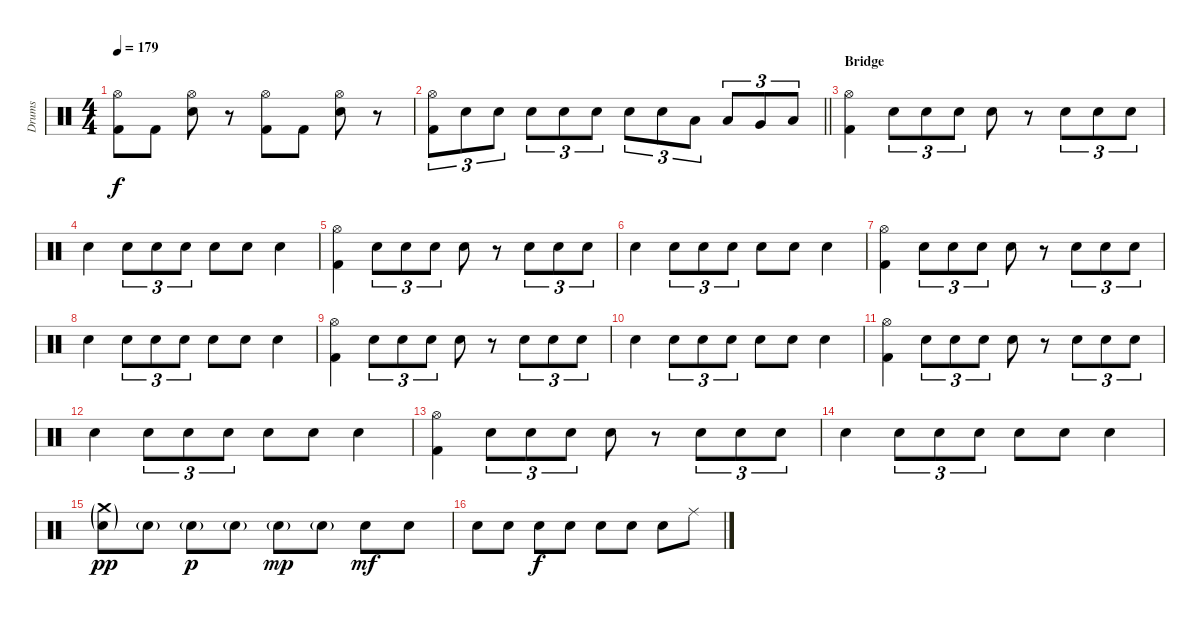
\track ("Drums" "Drums") {instrument percussion}
\staff {score}
\articulation defaults
\ts (4 4)
\tempo 179
\clef neutral
\ks c
("Hi-Hat (open)" "Kick (hit) 2").8{dy f} "Kick (hit) 2".8 ("Hi-Hat (open)" "Snare (hit) 2").8 r.8 ("Hi-Hat (open)" "Kick (hit) 2").8 "Kick (hit) 2".8 ("Hi-Hat (open)" "Snare (hit) 2").8 r.8 |
\barLineRight lightlight
("Hi-Hat (open)" "Kick (hit) 2").8{tu (3 2)} "Snare (hit) 2".8{tu (3 2)} "Snare (hit) 2".8{tu (3 2)} "Snare (hit) 2".8{tu (3 2)} "Snare (hit) 2".8{tu (3 2)} "Snare (hit) 2".8{tu (3 2)} "Snare (hit) 2".8{tu (3 2)} "Snare (hit) 2".8{tu (3 2)} "Low Tom (hit)".8{tu (3 2)} "Low Tom (hit)".8{tu (3 2)} "Very Low Tom (hit)".8{tu (3 2)} "Low Floor Tom (hit)".8{tu (3 2)} |
\section ("" "Bridge")
("Hi-Hat (open)" "Kick (hit) 2").4 "Snare (hit) 2".8{tu (3 2)} "Snare (hit) 2".8{tu (3 2)} "Snare (hit) 2".8{tu (3 2)} "Snare (hit) 2".8 r.8 "Snare (hit) 2".8{tu (3 2)} "Snare (hit) 2".8{tu (3 2)} "Snare (hit) 2".8{tu (3 2)} |
"Snare (hit) 2".4 "Snare (hit) 2".8{tu (3 2)} "Snare (hit) 2".8{tu (3 2)} "Snare (hit) 2".8{tu (3 2)} "Snare (hit) 2".8 "Snare (hit) 2".8 "Snare (hit) 2".4 |
("Hi-Hat (open)" "Kick (hit) 2").4 "Snare (hit) 2".8{tu (3 2)} "Snare (hit) 2".8{tu (3 2)} "Snare (hit) 2".8{tu (3 2)} "Snare (hit) 2".8 r.8 "Snare (hit) 2".8{tu (3 2)} "Snare (hit) 2".8{tu (3 2)} "Snare (hit) 2".8{tu (3 2)} |
"Snare (hit) 2".4 "Snare (hit) 2".8{tu (3 2)} "Snare (hit) 2".8{tu (3 2)} "Snare (hit) 2".8{tu (3 2)} "Snare (hit) 2".8 "Snare (hit) 2".8 "Snare (hit) 2".4 |
("Hi-Hat (open)" "Kick (hit) 2").4 "Snare (hit) 2".8{tu (3 2)} "Snare (hit) 2".8{tu (3 2)} "Snare (hit) 2".8{tu (3 2)} "Snare (hit) 2".8 r.8 "Snare (hit) 2".8{tu (3 2)} "Snare (hit) 2".8{tu (3 2)} "Snare (hit) 2".8{tu (3 2)} |
"Snare (hit) 2".4 "Snare (hit) 2".8{tu (3 2)} "Snare (hit) 2".8{tu (3 2)} "Snare (hit) 2".8{tu (3 2)} "Snare (hit) 2".8 "Snare (hit) 2".8 "Snare (hit) 2".4 |
("Hi-Hat (open)" "Kick (hit) 2").4 "Snare (hit) 2".8{tu (3 2)} "Snare (hit) 2".8{tu (3 2)} "Snare (hit) 2".8{tu (3 2)} "Snare (hit) 2".8 r.8 "Snare (hit) 2".8{tu (3 2)} "Snare (hit) 2".8{tu (3 2)} "Snare (hit) 2".8{tu (3 2)} |
"Snare (hit) 2".4 "Snare (hit) 2".8{tu (3 2)} "Snare (hit) 2".8{tu (3 2)} "Snare (hit) 2".8{tu (3 2)} "Snare (hit) 2".8 "Snare (hit) 2".8 "Snare (hit) 2".4 |
("Hi-Hat (open)" "Kick (hit) 2").4 "Snare (hit) 2".8{tu (3 2)} "Snare (hit) 2".8{tu (3 2)} "Snare (hit) 2".8{tu (3 2)} "Snare (hit) 2".8 r.8 "Snare (hit) 2".8{tu (3 2)} "Snare (hit) 2".8{tu (3 2)} "Snare (hit) 2".8{tu (3 2)} |
"Snare (hit) 2".4 "Snare (hit) 2".8{tu (3 2)} "Snare (hit) 2".8{tu (3 2)} "Snare (hit) 2".8{tu (3 2)} "Snare (hit) 2".8 "Snare (hit) 2".8 "Snare (hit) 2".4 |
("Hi-Hat (open)" "Kick (hit) 2").4 "Snare (hit) 2".8{tu (3 2)} "Snare (hit) 2".8{tu (3 2)} "Snare (hit) 2".8{tu (3 2)} "Snare (hit) 2".8 r.8 "Snare (hit) 2".8{tu (3 2)} "Snare (hit) 2".8{tu (3 2)} "Snare (hit) 2".8{tu (3 2)} |
"Snare (hit) 2".4 "Snare (hit) 2".8{tu (3 2)} "Snare (hit) 2".8{tu (3 2)} "Snare (hit) 2".8{tu (3 2)} "Snare (hit) 2".8 "Snare (hit) 2".8 "Snare (hit) 2".4 |
("Crash medium (hit)"{g} "Snare (hit) 2"{g}).8{dy pp} "Snare (hit) 2"{g}.8 "Snare (hit) 2"{g}.8{dy p} "Snare (hit) 2"{g}.8 "Snare (hit) 2"{g}.8{dy mp} "Snare (hit) 2"{g}.8 "Snare (hit) 2".8{dy mf} "Snare (hit) 2".8 |
"Snare (hit) 2".8 "Snare (hit) 2".8 "Snare (hit) 2".8{dy f} "Snare (hit) 2".8 "Snare (hit) 2".8 "Snare (hit) 2".8 "Snare (hit) 2".8 "Ride (middle)".8
